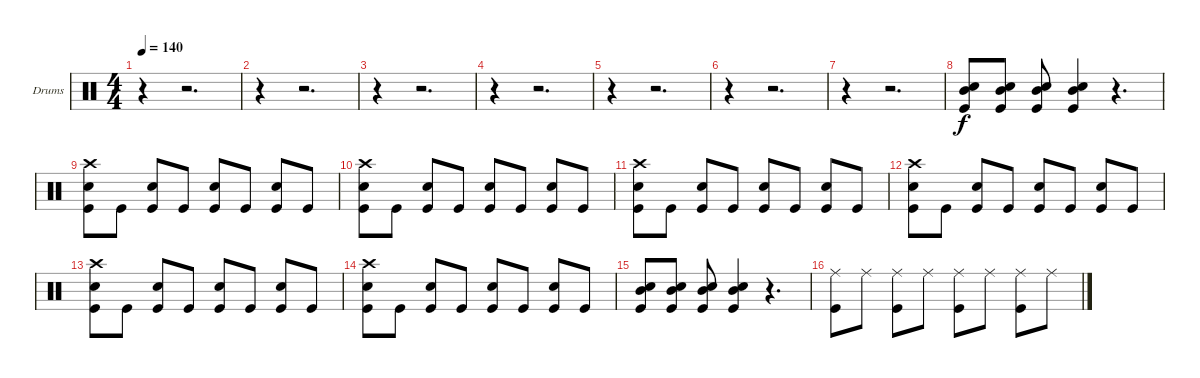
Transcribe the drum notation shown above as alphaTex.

\bracketExtendMode groupsimilarinstruments
\firstSystemTrackNameOrientation horizontal
\otherSystemsTrackNameOrientation horizontal
\track ("Ryan Seamen" "Drums") {instrument percussion}
\staff {score}
\articulation defaults
\ts (4 4)
\beaming (8 2 2 2 2)
\tempo 140
\clef neutral
\ks c
r.4{dy f} r.2{d} |
r.4 r.2{d} |
r.4 r.2{d} |
r.4 r.2{d} |
r.4 r.2{d} |
r.4 r.2{d} |
r.4 r.2{d} |
("Snare (hit) 2" "Mid Tom (hit)" "Kick (hit)").8 ("Snare (hit) 2" "Mid Tom (hit)" "Kick (hit)").8 ("Snare (hit) 2" "Mid Tom (hit)" "Kick (hit)").8 ("Snare (hit) 2" "Mid Tom (hit)" "Kick (hit)").4 r.4{d} |
("Crash high (hit)" "Snare (hit) 2" "Kick (hit)").8 "Kick (hit)".8 ("Snare (hit) 2" "Kick (hit)").8 "Kick (hit)".8 ("Snare (hit) 2" "Kick (hit)").8 "Kick (hit)".8 ("Snare (hit) 2" "Kick (hit)").8 "Kick (hit)".8 |
("Crash high (hit)" "Snare (hit) 2" "Kick (hit)").8 "Kick (hit)".8 ("Snare (hit) 2" "Kick (hit)").8 "Kick (hit)".8 ("Snare (hit) 2" "Kick (hit)").8 "Kick (hit)".8 ("Snare (hit) 2" "Kick (hit)").8 "Kick (hit)".8 |
("Crash high (hit)" "Snare (hit) 2" "Kick (hit)").8 "Kick (hit)".8 ("Snare (hit) 2" "Kick (hit)").8 "Kick (hit)".8 ("Snare (hit) 2" "Kick (hit)").8 "Kick (hit)".8 ("Snare (hit) 2" "Kick (hit)").8 "Kick (hit)".8 |
("Crash high (hit)" "Snare (hit) 2" "Kick (hit)").8 "Kick (hit)".8 ("Snare (hit) 2" "Kick (hit)").8 "Kick (hit)".8 ("Snare (hit) 2" "Kick (hit)").8 "Kick (hit)".8 ("Snare (hit) 2" "Kick (hit)").8 "Kick (hit)".8 |
("Crash high (hit)" "Snare (hit) 2" "Kick (hit)").8 "Kick (hit)".8 ("Snare (hit) 2" "Kick (hit)").8 "Kick (hit)".8 ("Snare (hit) 2" "Kick (hit)").8 "Kick (hit)".8 ("Snare (hit) 2" "Kick (hit)").8 "Kick (hit)".8 |
("Crash high (hit)" "Snare (hit) 2" "Kick (hit)").8 "Kick (hit)".8 ("Snare (hit) 2" "Kick (hit)").8 "Kick (hit)".8 ("Snare (hit) 2" "Kick (hit)").8 "Kick (hit)".8 ("Snare (hit) 2" "Kick (hit)").8 "Kick (hit)".8 |
("Snare (hit) 2" "Mid Tom (hit)" "Kick (hit)").8 ("Snare (hit) 2" "Mid Tom (hit)" "Kick (hit)").8 ("Snare (hit) 2" "Mid Tom (hit)" "Kick (hit)").8 ("Snare (hit) 2" "Mid Tom (hit)" "Kick (hit)").4 r.4{d} |
("Ride (middle)" "Kick (hit)").8 "Ride (middle)".8 ("Ride (middle)" "Kick (hit)").8 "Ride (middle)".8 ("Ride (middle)" "Kick (hit)").8 "Ride (middle)".8 ("Ride (middle)" "Kick (hit)").8 "Ride (middle)".8
